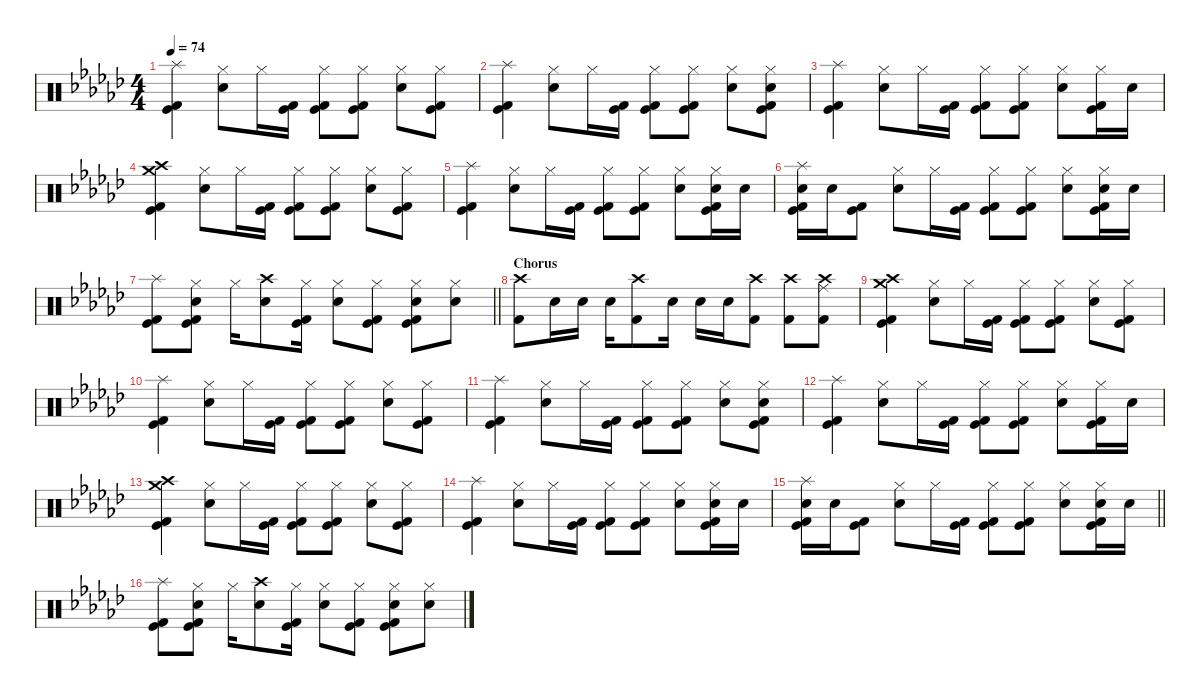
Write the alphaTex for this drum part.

\defaultSystemsLayout 4
\hideDynamics
\bracketExtendMode nobrackets
\singleTrackTrackNamePolicy hidden
\multiTrackTrackNamePolicy hidden
\firstSystemTrackNameMode fullname
\firstSystemTrackNameOrientation horizontal
\otherSystemsTrackNameOrientation horizontal
\track ("Drums, Ulrich" "drm.") {defaultSystemsLayout 4 instrument percussion}
\staff {score}
\articulation defaults
\ts (4 4)
\tempo 74
\clef neutral
\ks ebminor
("Splash (hit)"{acc forcenatural} "Kick (hit) 2"{acc forcenatural} "Kick (hit)"{acc forcenatural}).4{dy f beam Down} ("Hi-Hat (closed)"{acc forcenatural} "Snare (hit) 2"{acc forcenatural}).8{beam Down} "Hi-Hat (closed)"{acc forcenatural}.16{beam Down} ("Kick (hit) 2"{acc forcenatural} "Kick (hit)"{acc forcenatural}).16{beam Down} ("Hi-Hat (closed)"{acc forcenatural} "Kick (hit) 2"{acc forcenatural} "Kick (hit)"{acc forcenatural}).8{beam Down} ("Hi-Hat (closed)"{acc forcenatural} "Kick (hit)"{acc forcenatural} "Kick (hit) 2"{acc forcenatural}).8{beam Down} ("Hi-Hat (closed)"{acc forcenatural} "Snare (hit) 2"{acc forcenatural}).8{beam Down} ("Hi-Hat (closed)"{acc forcenatural} "Kick (hit) 2"{acc forcenatural} "Kick (hit)"{acc forcenatural}).8{beam Down} |
("Splash (hit)"{acc forcenatural} "Kick (hit) 2"{acc forcenatural} "Kick (hit)"{acc forcenatural}).4{beam Down} ("Hi-Hat (closed)"{acc forcenatural} "Snare (hit) 2"{acc forcenatural}).8{beam Down} "Hi-Hat (closed)"{acc forcenatural}.16{beam Down} ("Kick (hit) 2"{acc forcenatural} "Kick (hit)"{acc forcenatural}).16{beam Down} ("Hi-Hat (closed)"{acc forcenatural} "Kick (hit) 2"{acc forcenatural} "Kick (hit)"{acc forcenatural}).8{beam Down} ("Hi-Hat (closed)"{acc forcenatural} "Kick (hit)"{acc forcenatural} "Kick (hit) 2"{acc forcenatural}).8{beam Down} ("Hi-Hat (closed)"{acc forcenatural} "Snare (hit) 2"{acc forcenatural}).8{beam Down} ("Hi-Hat (closed)"{acc forcenatural} "Snare (hit) 2"{acc forcenatural} "Kick (hit) 2"{acc forcenatural} "Kick (hit)"{acc forcenatural}).8{beam Down} |
("Splash (hit)"{acc forcenatural} "Kick (hit) 2"{acc forcenatural} "Kick (hit)"{acc forcenatural}).4{beam Down} ("Hi-Hat (closed)"{acc forcenatural} "Snare (hit) 2"{acc forcenatural}).8{beam Down} "Hi-Hat (closed)"{acc forcenatural}.16{beam Down} ("Kick (hit) 2"{acc forcenatural} "Kick (hit)"{acc forcenatural}).16{beam Down} ("Hi-Hat (closed)"{acc forcenatural} "Kick (hit) 2"{acc forcenatural} "Kick (hit)"{acc forcenatural}).8{beam Down} ("Hi-Hat (closed)"{acc forcenatural} "Kick (hit)"{acc forcenatural} "Kick (hit) 2"{acc forcenatural}).8{beam Down} ("Hi-Hat (closed)"{acc forcenatural} "Snare (hit) 2"{acc forcenatural}).8{beam Down} ("Hi-Hat (closed)"{acc forcenatural} "Kick (hit) 2"{acc forcenatural} "Kick (hit)"{acc forcenatural}).16{beam Down} "Snare (hit) 2"{acc forcenatural}.16{beam Down} |
("Crash medium (hit)"{acc forcenatural} "Crash high (hit)"{acc forcenatural} "Kick (hit) 2"{acc forcenatural} "Kick (hit)"{acc forcenatural}).4{beam Down} ("Hi-Hat (closed)"{acc forcenatural} "Snare (hit) 2"{acc forcenatural}).8{beam Down} "Hi-Hat (closed)"{acc forcenatural}.16{beam Down} ("Kick (hit) 2"{acc forcenatural} "Kick (hit)"{acc forcenatural}).16{beam Down} ("Hi-Hat (closed)"{acc forcenatural} "Kick (hit) 2"{acc forcenatural} "Kick (hit)"{acc forcenatural}).8{beam Down} ("Hi-Hat (closed)"{acc forcenatural} "Kick (hit)"{acc forcenatural} "Kick (hit) 2"{acc forcenatural}).8{beam Down} ("Hi-Hat (closed)"{acc forcenatural} "Snare (hit) 2"{acc forcenatural}).8{beam Down} ("Hi-Hat (closed)"{acc forcenatural} "Kick (hit) 2"{acc forcenatural} "Kick (hit)"{acc forcenatural}).8{beam Down} |
("Splash (hit)"{acc forcenatural} "Kick (hit) 2"{acc forcenatural} "Kick (hit)"{acc forcenatural}).4{beam Down} ("Hi-Hat (closed)"{acc forcenatural} "Snare (hit) 2"{acc forcenatural}).8{beam Down} "Hi-Hat (closed)"{acc forcenatural}.16{beam Down} ("Kick (hit) 2"{acc forcenatural} "Kick (hit)"{acc forcenatural}).16{beam Down} ("Hi-Hat (closed)"{acc forcenatural} "Kick (hit) 2"{acc forcenatural} "Kick (hit)"{acc forcenatural}).8{beam Down} ("Hi-Hat (closed)"{acc forcenatural} "Kick (hit)"{acc forcenatural} "Kick (hit) 2"{acc forcenatural}).8{beam Down} ("Hi-Hat (closed)"{acc forcenatural} "Snare (hit) 2"{acc forcenatural}).8{beam Down} ("Hi-Hat (closed)"{acc forcenatural} "Snare (hit) 2"{acc forcenatural} "Kick (hit) 2"{acc forcenatural} "Kick (hit)"{acc forcenatural}).16{beam Down} "Snare (hit) 2"{acc forcenatural}.16{beam Down} |
("Splash (hit)"{acc forcenatural} "Snare (hit) 2"{acc forcenatural} "Kick (hit) 2"{acc forcenatural} "Kick (hit)"{acc forcenatural}).16{beam Down} "Snare (hit) 2"{acc forcenatural}.16{beam Down} ("Kick (hit) 2"{acc forcenatural} "Kick (hit)"{acc forcenatural}).8{beam Down} ("Hi-Hat (closed)"{acc forcenatural} "Snare (hit) 2"{acc forcenatural}).8{beam Down} "Hi-Hat (closed)"{acc forcenatural}.16{beam Down} ("Kick (hit) 2"{acc forcenatural} "Kick (hit)"{acc forcenatural}).16{beam Down} ("Hi-Hat (closed)"{acc forcenatural} "Kick (hit) 2"{acc forcenatural} "Kick (hit)"{acc forcenatural}).8{beam Down} ("Hi-Hat (closed)"{acc forcenatural} "Kick (hit)"{acc forcenatural} "Kick (hit) 2"{acc forcenatural}).8{beam Down} ("Hi-Hat (closed)"{acc forcenatural} "Snare (hit) 2"{acc forcenatural}).8{beam Down} ("Hi-Hat (closed)"{acc forcenatural} "Snare (hit) 2"{acc forcenatural} "Kick (hit) 2"{acc forcenatural} "Kick (hit)"{acc forcenatural}).16{beam Down} "Snare (hit) 2"{acc forcenatural}.16{beam Down} |
\barLineRight lightlight
("Splash (hit)"{acc forcenatural} "Kick (hit) 2"{acc forcenatural} "Kick (hit)"{acc forcenatural}).8{beam Down} ("Hi-Hat (closed)"{acc forcenatural} "Snare (hit) 2"{acc forcenatural} "Kick (hit) 2"{acc forcenatural} "Kick (hit)"{acc forcenatural}).8{beam Down} "Hi-Hat (closed)"{acc forcenatural}.16{beam Down} ("Crash high (hit)"{acc forcenatural} "Snare (hit) 2"{acc forcenatural}).8{beam Down} ("Hi-Hat (closed)"{acc forcenatural} "Kick (hit)"{acc forcenatural} "Kick (hit) 2"{acc forcenatural}).16{beam Down} ("Hi-Hat (closed)"{acc forcenatural} "Snare (hit) 2"{acc forcenatural}).8{beam Down} ("Hi-Hat (closed)"{acc forcenatural} "Kick (hit) 2"{acc forcenatural} "Kick (hit)"{acc forcenatural}).8{beam Down} ("Hi-Hat (closed)"{acc forcenatural} "Snare (hit) 2"{acc forcenatural} "Kick (hit)"{acc forcenatural} "Kick (hit) 2"{acc forcenatural}).8{beam Down} ("Hi-Hat (closed)"{acc forcenatural} "Snare (hit) 2"{acc forcenatural}).8{beam Down} |
\section ("" "Chorus")
("Crash high (hit)"{acc forcenatural} "Kick (hit) 2"{acc forcenatural}).8{beam Down} "Snare (hit) 2"{acc forcenatural}.16{beam Down} "Snare (hit) 2"{acc forcenatural}.16{beam Down} "Snare (hit) 2"{acc forcenatural}.16{beam Down} ("Crash high (hit)"{acc forcenatural} "Kick (hit) 2"{acc forcenatural}).8{beam Down} "Snare (hit) 2"{acc forcenatural}.16{beam Down} "Snare (hit) 2"{acc forcenatural}.16{beam Down} "Snare (hit) 2"{acc forcenatural}.16{beam Down} ("Crash high (hit)"{acc forcenatural} "Kick (hit) 2"{acc forcenatural}).8{beam Down} ("Crash high (hit)"{acc forcenatural} "Kick (hit) 2"{acc forcenatural}).8{beam Down} ("Ride (middle)"{acc forcenatural} "Crash high (hit)"{acc forcenatural} "Kick (hit) 2"{acc forcenatural}).8{beam Down} |
("Crash medium (hit)"{acc forcenatural} "Crash high (hit)"{acc forcenatural} "Kick (hit) 2"{acc forcenatural} "Kick (hit)"{acc forcenatural}).4{beam Down} ("Hi-Hat (closed)"{acc forcenatural} "Snare (hit) 2"{acc forcenatural}).8{beam Down} "Hi-Hat (closed)"{acc forcenatural}.16{beam Down} ("Kick (hit) 2"{acc forcenatural} "Kick (hit)"{acc forcenatural}).16{beam Down} ("Hi-Hat (closed)"{acc forcenatural} "Kick (hit) 2"{acc forcenatural} "Kick (hit)"{acc forcenatural}).8{beam Down} ("Hi-Hat (closed)"{acc forcenatural} "Kick (hit)"{acc forcenatural} "Kick (hit) 2"{acc forcenatural}).8{beam Down} ("Hi-Hat (closed)"{acc forcenatural} "Snare (hit) 2"{acc forcenatural}).8{beam Down} ("Hi-Hat (closed)"{acc forcenatural} "Kick (hit) 2"{acc forcenatural} "Kick (hit)"{acc forcenatural}).8{beam Down} |
("Splash (hit)"{acc forcenatural} "Kick (hit) 2"{acc forcenatural} "Kick (hit)"{acc forcenatural}).4{beam Down} ("Hi-Hat (closed)"{acc forcenatural} "Snare (hit) 2"{acc forcenatural}).8{beam Down} "Hi-Hat (closed)"{acc forcenatural}.16{beam Down} ("Kick (hit) 2"{acc forcenatural} "Kick (hit)"{acc forcenatural}).16{beam Down} ("Hi-Hat (closed)"{acc forcenatural} "Kick (hit) 2"{acc forcenatural} "Kick (hit)"{acc forcenatural}).8{beam Down} ("Hi-Hat (closed)"{acc forcenatural} "Kick (hit)"{acc forcenatural} "Kick (hit) 2"{acc forcenatural}).8{beam Down} ("Hi-Hat (closed)"{acc forcenatural} "Snare (hit) 2"{acc forcenatural}).8{beam Down} ("Hi-Hat (closed)"{acc forcenatural} "Kick (hit) 2"{acc forcenatural} "Kick (hit)"{acc forcenatural}).8{beam Down} |
("Splash (hit)"{acc forcenatural} "Kick (hit) 2"{acc forcenatural} "Kick (hit)"{acc forcenatural}).4{beam Down} ("Hi-Hat (closed)"{acc forcenatural} "Snare (hit) 2"{acc forcenatural}).8{beam Down} "Hi-Hat (closed)"{acc forcenatural}.16{beam Down} ("Kick (hit) 2"{acc forcenatural} "Kick (hit)"{acc forcenatural}).16{beam Down} ("Hi-Hat (closed)"{acc forcenatural} "Kick (hit) 2"{acc forcenatural} "Kick (hit)"{acc forcenatural}).8{beam Down} ("Hi-Hat (closed)"{acc forcenatural} "Kick (hit)"{acc forcenatural} "Kick (hit) 2"{acc forcenatural}).8{beam Down} ("Hi-Hat (closed)"{acc forcenatural} "Snare (hit) 2"{acc forcenatural}).8{beam Down} ("Hi-Hat (closed)"{acc forcenatural} "Snare (hit) 2"{acc forcenatural} "Kick (hit) 2"{acc forcenatural} "Kick (hit)"{acc forcenatural}).8{beam Down} |
("Splash (hit)"{acc forcenatural} "Kick (hit) 2"{acc forcenatural} "Kick (hit)"{acc forcenatural}).4{beam Down} ("Hi-Hat (closed)"{acc forcenatural} "Snare (hit) 2"{acc forcenatural}).8{beam Down} "Hi-Hat (closed)"{acc forcenatural}.16{beam Down} ("Kick (hit) 2"{acc forcenatural} "Kick (hit)"{acc forcenatural}).16{beam Down} ("Hi-Hat (closed)"{acc forcenatural} "Kick (hit) 2"{acc forcenatural} "Kick (hit)"{acc forcenatural}).8{beam Down} ("Hi-Hat (closed)"{acc forcenatural} "Kick (hit)"{acc forcenatural} "Kick (hit) 2"{acc forcenatural}).8{beam Down} ("Hi-Hat (closed)"{acc forcenatural} "Snare (hit) 2"{acc forcenatural}).8{beam Down} ("Hi-Hat (closed)"{acc forcenatural} "Kick (hit) 2"{acc forcenatural} "Kick (hit)"{acc forcenatural}).16{beam Down} "Snare (hit) 2"{acc forcenatural}.16{beam Down} |
("Crash medium (hit)"{acc forcenatural} "Crash high (hit)"{acc forcenatural} "Kick (hit) 2"{acc forcenatural} "Kick (hit)"{acc forcenatural}).4{beam Down} ("Hi-Hat (closed)"{acc forcenatural} "Snare (hit) 2"{acc forcenatural}).8{beam Down} "Hi-Hat (closed)"{acc forcenatural}.16{beam Down} ("Kick (hit) 2"{acc forcenatural} "Kick (hit)"{acc forcenatural}).16{beam Down} ("Hi-Hat (closed)"{acc forcenatural} "Kick (hit) 2"{acc forcenatural} "Kick (hit)"{acc forcenatural}).8{beam Down} ("Hi-Hat (closed)"{acc forcenatural} "Kick (hit)"{acc forcenatural} "Kick (hit) 2"{acc forcenatural}).8{beam Down} ("Hi-Hat (closed)"{acc forcenatural} "Snare (hit) 2"{acc forcenatural}).8{beam Down} ("Hi-Hat (closed)"{acc forcenatural} "Kick (hit) 2"{acc forcenatural} "Kick (hit)"{acc forcenatural}).8{beam Down} |
("Splash (hit)"{acc forcenatural} "Kick (hit) 2"{acc forcenatural} "Kick (hit)"{acc forcenatural}).4{beam Down} ("Hi-Hat (closed)"{acc forcenatural} "Snare (hit) 2"{acc forcenatural}).8{beam Down} "Hi-Hat (closed)"{acc forcenatural}.16{beam Down} ("Kick (hit) 2"{acc forcenatural} "Kick (hit)"{acc forcenatural}).16{beam Down} ("Hi-Hat (closed)"{acc forcenatural} "Kick (hit) 2"{acc forcenatural} "Kick (hit)"{acc forcenatural}).8{beam Down} ("Hi-Hat (closed)"{acc forcenatural} "Kick (hit)"{acc forcenatural} "Kick (hit) 2"{acc forcenatural}).8{beam Down} ("Hi-Hat (closed)"{acc forcenatural} "Snare (hit) 2"{acc forcenatural}).8{beam Down} ("Hi-Hat (closed)"{acc forcenatural} "Snare (hit) 2"{acc forcenatural} "Kick (hit) 2"{acc forcenatural} "Kick (hit)"{acc forcenatural}).16{beam Down} "Snare (hit) 2"{acc forcenatural}.16{beam Down} |
\barLineRight lightlight
("Splash (hit)"{acc forcenatural} "Snare (hit) 2"{acc forcenatural} "Kick (hit) 2"{acc forcenatural} "Kick (hit)"{acc forcenatural}).16{beam Down} "Snare (hit) 2"{acc forcenatural}.16{beam Down} ("Kick (hit) 2"{acc forcenatural} "Kick (hit)"{acc forcenatural}).8{beam Down} ("Hi-Hat (closed)"{acc forcenatural} "Snare (hit) 2"{acc forcenatural}).8{beam Down} "Hi-Hat (closed)"{acc forcenatural}.16{beam Down} ("Kick (hit) 2"{acc forcenatural} "Kick (hit)"{acc forcenatural}).16{beam Down} ("Hi-Hat (closed)"{acc forcenatural} "Kick (hit) 2"{acc forcenatural} "Kick (hit)"{acc forcenatural}).8{beam Down} ("Hi-Hat (closed)"{acc forcenatural} "Kick (hit)"{acc forcenatural} "Kick (hit) 2"{acc forcenatural}).8{beam Down} ("Hi-Hat (closed)"{acc forcenatural} "Snare (hit) 2"{acc forcenatural}).8{beam Down} ("Hi-Hat (closed)"{acc forcenatural} "Snare (hit) 2"{acc forcenatural} "Kick (hit) 2"{acc forcenatural} "Kick (hit)"{acc forcenatural}).16{beam Down} "Snare (hit) 2"{acc forcenatural}.16{beam Down} |
("Splash (hit)"{acc forcenatural} "Kick (hit) 2"{acc forcenatural} "Kick (hit)"{acc forcenatural}).8{beam Down} ("Hi-Hat (closed)"{acc forcenatural} "Snare (hit) 2"{acc forcenatural} "Kick (hit) 2"{acc forcenatural} "Kick (hit)"{acc forcenatural}).8{beam Down} "Hi-Hat (closed)"{acc forcenatural}.16{beam Down} ("Crash high (hit)"{acc forcenatural} "Snare (hit) 2"{acc forcenatural}).8{beam Down} ("Hi-Hat (closed)"{acc forcenatural} "Kick (hit)"{acc forcenatural} "Kick (hit) 2"{acc forcenatural}).16{beam Down} ("Hi-Hat (closed)"{acc forcenatural} "Snare (hit) 2"{acc forcenatural}).8{beam Down} ("Hi-Hat (closed)"{acc forcenatural} "Kick (hit) 2"{acc forcenatural} "Kick (hit)"{acc forcenatural}).8{beam Down} ("Hi-Hat (closed)"{acc forcenatural} "Snare (hit) 2"{acc forcenatural} "Kick (hit)"{acc forcenatural} "Kick (hit) 2"{acc forcenatural}).8{beam Down} ("Hi-Hat (closed)"{acc forcenatural} "Snare (hit) 2"{acc forcenatural}).8{beam Down}
